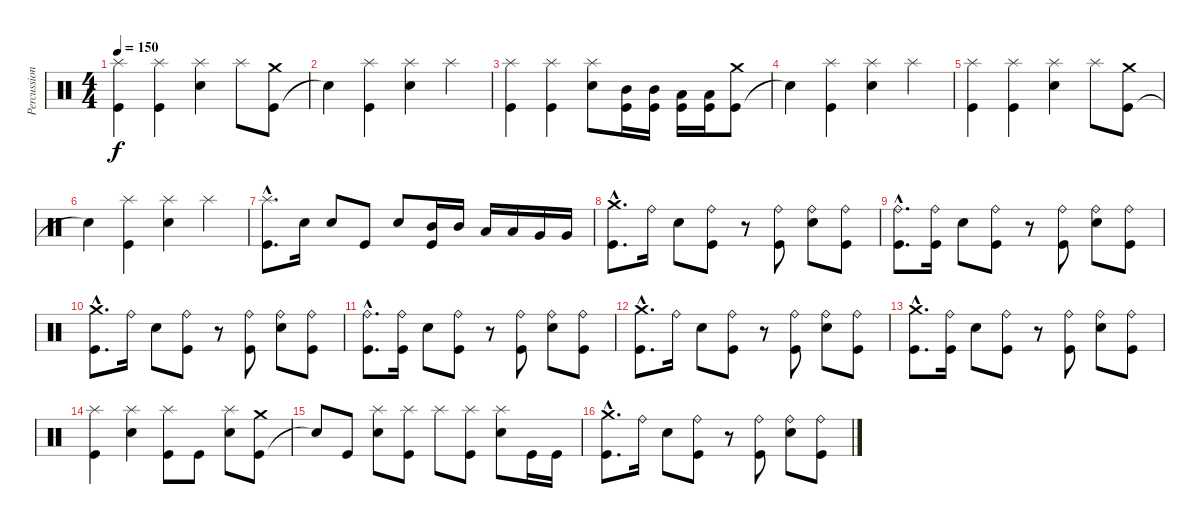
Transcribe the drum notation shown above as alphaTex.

\track ("Percussions" "Percussion") {instrument percussion}
\staff {score}
\articulation defaults
\ts (4 4)
\tempo 150
\clef neutral
\ks c
("Kick (hit)" "Splash (hit)").4{dy f} ("Kick (hit)" "Splash (hit)").4 ("Electric Snare (hit)" "Splash (hit)").4 "Splash (hit)".8 ("Kick (hit)" "Crash medium (hit)").8 |
"Snare (hit)"{t}.4 ("Kick (hit)" "Splash (hit)").4 ("Electric Snare (hit)" "Splash (hit)").4 "Splash (hit)".4 |
("Kick (hit)" "Splash (hit)").4 ("Kick (hit)" "Splash (hit)").4 ("Electric Snare (hit)" "Splash (hit)").8 ("Kick (hit)" "Mid Tom (hit)").16 ("Kick (hit)" "Mid Tom (hit)").16 ("Kick (hit)" "Low Tom (hit)").16 ("Kick (hit)" "Low Tom (hit)").16 ("Kick (hit)" "Crash medium (hit)").8 |
"Snare (hit)"{t}.4 ("Kick (hit)" "Splash (hit)").4 ("Electric Snare (hit)" "Splash (hit)").4 "Splash (hit)".4 |
("Kick (hit)" "Splash (hit)").4 ("Kick (hit)" "Splash (hit)").4 ("Electric Snare (hit)" "Splash (hit)").4 "Splash (hit)".8 ("Kick (hit)" "Crash medium (hit)").8 |
"Snare (hit)"{t}.4 ("Kick (hit)" "Splash (hit)").4 ("Electric Snare (hit)" "Splash (hit)").4 "Splash (hit)".4 |
("Kick (hit)"{hac} "Splash (hit)"{hac}).8{d} "Electric Snare (hit)".16 "Electric Snare (hit)".8 "Kick (hit)".8 "Electric Snare (hit)".8 ("Kick (hit)" "Mid Tom (hit)").16 "Mid Tom (hit)".16 "Low Tom (hit)".16 "Low Tom (hit)".16 "Very Low Tom (hit)".16 "Very Low Tom (hit)".16 |
("Kick (hit)"{hac} "Crash medium (hit)"{hac}).8{d} "Ride (bell)".16 "Electric Snare (hit)".8 ("Kick (hit)" "Ride (bell)").8 r.8 ("Kick (hit)" "Ride (bell)").8 ("Electric Snare (hit)" "Ride (bell)").8 ("Kick (hit)" "Ride (bell)").8 |
("Kick (hit)"{hac} "Ride (bell)"{hac}).8{d} ("Kick (hit)" "Ride (bell)").16 "Electric Snare (hit)".8 ("Kick (hit)" "Ride (bell)").8 r.8 ("Kick (hit)" "Ride (bell)").8 ("Electric Snare (hit)" "Ride (bell)").8 ("Kick (hit)" "Ride (bell)").8 |
("Kick (hit)"{hac} "Crash medium (hit)"{hac}).8{d} "Ride (bell)".16 "Electric Snare (hit)".8 ("Kick (hit)" "Ride (bell)").8 r.8 ("Kick (hit)" "Ride (bell)").8 ("Electric Snare (hit)" "Ride (bell)").8 ("Kick (hit)" "Ride (bell)").8 |
("Kick (hit)"{hac} "Ride (bell)"{hac}).8{d} ("Kick (hit)" "Ride (bell)").16 "Electric Snare (hit)".8 ("Kick (hit)" "Ride (bell)").8 r.8 ("Kick (hit)" "Ride (bell)").8 ("Electric Snare (hit)" "Ride (bell)").8 ("Kick (hit)" "Ride (bell)").8 |
("Kick (hit)"{hac} "Crash medium (hit)"{hac}).8{d} "Ride (bell)".16 "Electric Snare (hit)".8 ("Kick (hit)" "Ride (bell)").8 r.8 ("Kick (hit)" "Ride (bell)").8 ("Electric Snare (hit)" "Ride (bell)").8 ("Kick (hit)" "Ride (bell)").8 |
("Kick (hit)"{hac} "Crash medium (hit)"{hac}).8{d} ("Kick (hit)" "Ride (bell)").16 "Electric Snare (hit)".8 ("Kick (hit)" "Ride (bell)").8 r.8 ("Kick (hit)" "Ride (bell)").8 ("Electric Snare (hit)" "Ride (bell)").8 ("Kick (hit)" "Ride (bell)").8 |
("Kick (hit)" "Splash (hit)").4 ("Electric Snare (hit)" "Splash (hit)").4 ("Kick (hit)" "Splash (hit)").8 "Kick (hit)".8 ("Electric Snare (hit)" "Splash (hit)").8 ("Kick (hit)" "Crash medium (hit)").8 |
"Snare (hit)"{t}.8 "Kick (hit)".8 ("Electric Snare (hit)" "Splash (hit)").8 ("Kick (hit)" "Splash (hit)").8 "Splash (hit)".8 ("Kick (hit)" "Splash (hit)").8 ("Electric Snare (hit)" "Splash (hit)").8 "Kick (hit)".16 "Kick (hit)".16 |
("Kick (hit)"{hac} "Crash medium (hit)"{hac}).8{d} "Ride (bell)".16 "Electric Snare (hit)".8 ("Kick (hit)" "Ride (bell)").8 r.8 ("Kick (hit)" "Ride (bell)").8 ("Electric Snare (hit)" "Ride (bell)").8 ("Kick (hit)" "Ride (bell)").8
